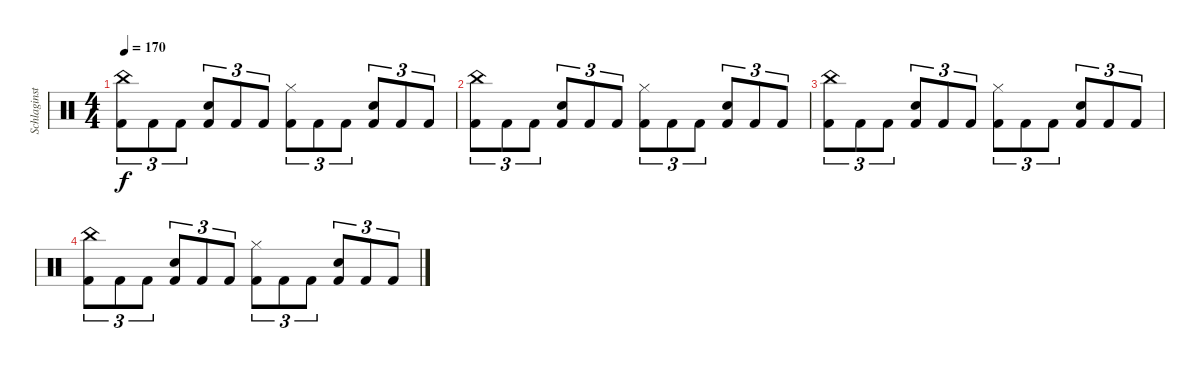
\track ("Schlaginstrumente - Auswahl" "Schlaginst") {instrument percussion}
\staff {score}
\articulation defaults
\ts (4 4)
\tempo 170
\clef neutral
\ks c
("Kick (hit) 2" "China (hit)").8{tu (3 2) dy f} "Kick (hit) 2".8{tu (3 2)} "Kick (hit) 2".8{tu (3 2)} ("Kick (hit) 2" "Snare (hit) 2").8{tu (3 2)} "Kick (hit) 2".8{tu (3 2)} "Kick (hit) 2".8{tu (3 2)} ("Kick (hit) 2" "Hi-Hat (closed)").8{tu (3 2)} "Kick (hit) 2".8{tu (3 2)} "Kick (hit) 2".8{tu (3 2)} ("Kick (hit) 2" "Snare (hit) 2").8{tu (3 2)} "Kick (hit) 2".8{tu (3 2)} "Kick (hit) 2".8{tu (3 2)} |
("Kick (hit) 2" "China (hit)").8{tu (3 2)} "Kick (hit) 2".8{tu (3 2)} "Kick (hit) 2".8{tu (3 2)} ("Kick (hit) 2" "Snare (hit) 2").8{tu (3 2)} "Kick (hit) 2".8{tu (3 2)} "Kick (hit) 2".8{tu (3 2)} ("Kick (hit) 2" "Hi-Hat (closed)").8{tu (3 2)} "Kick (hit) 2".8{tu (3 2)} "Kick (hit) 2".8{tu (3 2)} ("Kick (hit) 2" "Snare (hit) 2").8{tu (3 2)} "Kick (hit) 2".8{tu (3 2)} "Kick (hit) 2".8{tu (3 2)} |
("Kick (hit) 2" "China (hit)").8{tu (3 2)} "Kick (hit) 2".8{tu (3 2)} "Kick (hit) 2".8{tu (3 2)} ("Kick (hit) 2" "Snare (hit) 2").8{tu (3 2)} "Kick (hit) 2".8{tu (3 2)} "Kick (hit) 2".8{tu (3 2)} ("Kick (hit) 2" "Hi-Hat (closed)").8{tu (3 2)} "Kick (hit) 2".8{tu (3 2)} "Kick (hit) 2".8{tu (3 2)} ("Kick (hit) 2" "Snare (hit) 2").8{tu (3 2)} "Kick (hit) 2".8{tu (3 2)} "Kick (hit) 2".8{tu (3 2)} |
("Kick (hit) 2" "China (hit)").8{tu (3 2)} "Kick (hit) 2".8{tu (3 2)} "Kick (hit) 2".8{tu (3 2)} ("Kick (hit) 2" "Snare (hit) 2").8{tu (3 2)} "Kick (hit) 2".8{tu (3 2)} "Kick (hit) 2".8{tu (3 2)} ("Kick (hit) 2" "Hi-Hat (closed)").8{tu (3 2)} "Kick (hit) 2".8{tu (3 2)} "Kick (hit) 2".8{tu (3 2)} ("Kick (hit) 2" "Snare (hit) 2").8{tu (3 2)} "Kick (hit) 2".8{tu (3 2)} "Kick (hit) 2".8{tu (3 2)}
